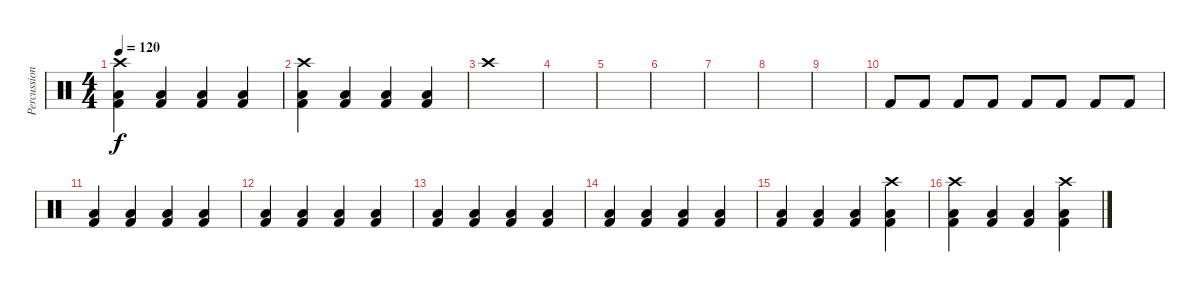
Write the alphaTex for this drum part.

\track ("Percussion" "Percussion") {instrument percussion}
\staff {score}
\articulation defaults
\ts (4 4)
\tempo 120
\clef neutral
\ks c
("Kick (hit) 2" "Low Floor Tom (hit)" "Crash high (hit)").4{dy f} ("Kick (hit) 2" "Low Floor Tom (hit)").4 ("Kick (hit) 2" "Low Floor Tom (hit)").4 ("Kick (hit) 2" "Low Floor Tom (hit)").4 |
("Kick (hit) 2" "Low Floor Tom (hit)" "Crash high (hit)").4 ("Kick (hit) 2" "Low Floor Tom (hit)").4 ("Kick (hit) 2" "Low Floor Tom (hit)").4 ("Kick (hit) 2" "Low Floor Tom (hit)").4 |
"Crash high (hit)".1 |
|
|
|
|
|
|
"Kick (hit) 2".8 "Kick (hit) 2".8 "Kick (hit) 2".8 "Kick (hit) 2".8 "Kick (hit) 2".8 "Kick (hit) 2".8 "Kick (hit) 2".8 "Kick (hit) 2".8 |
("Kick (hit) 2" "Low Floor Tom (hit)").4 ("Kick (hit) 2" "Low Floor Tom (hit)").4 ("Kick (hit) 2" "Low Floor Tom (hit)").4 ("Kick (hit) 2" "Low Floor Tom (hit)").4 |
("Kick (hit) 2" "Low Floor Tom (hit)").4 ("Kick (hit) 2" "Low Floor Tom (hit)").4 ("Kick (hit) 2" "Low Floor Tom (hit)").4 ("Kick (hit) 2" "Low Floor Tom (hit)").4 |
("Kick (hit) 2" "Low Floor Tom (hit)").4 ("Kick (hit) 2" "Low Floor Tom (hit)").4 ("Kick (hit) 2" "Low Floor Tom (hit)").4 ("Kick (hit) 2" "Low Floor Tom (hit)").4 |
("Kick (hit) 2" "Low Floor Tom (hit)").4 ("Kick (hit) 2" "Low Floor Tom (hit)").4 ("Kick (hit) 2" "Low Floor Tom (hit)").4 ("Kick (hit) 2" "Low Floor Tom (hit)").4 |
("Kick (hit) 2" "Low Floor Tom (hit)").4 ("Kick (hit) 2" "Low Floor Tom (hit)").4 ("Kick (hit) 2" "Low Floor Tom (hit)").4 ("Kick (hit) 2" "Low Floor Tom (hit)" "Crash high (hit)").4 |
("Kick (hit) 2" "Low Floor Tom (hit)" "Crash high (hit)").4 ("Kick (hit) 2" "Low Floor Tom (hit)").4 ("Kick (hit) 2" "Low Floor Tom (hit)").4 ("Kick (hit) 2" "Low Floor Tom (hit)" "Crash high (hit)").4
